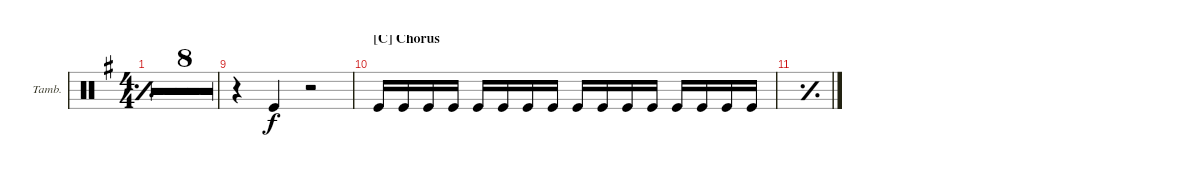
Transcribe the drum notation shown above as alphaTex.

\defaultSystemsLayout 4
\bracketExtendMode groupsimilarinstruments
\firstSystemTrackNameOrientation horizontal
\otherSystemsTrackNameOrientation horizontal
\track ("Tambourine" "Tamb.") {multiBarRest instrument percussion}
\staff {score}
\articulation defaults
\ts (4 4)
\tempo 98
\clef neutral
\simile simple
\ks g
|
|
|
|
|
|
|
|
r.4 "Kick (hit)".4 r.2 |
\section ("C" "Chorus")
"Kick (hit)".16 "Kick (hit)".16 "Kick (hit)".16 "Kick (hit)".16 "Kick (hit)".16 "Kick (hit)".16 "Kick (hit)".16 "Kick (hit)".16 "Kick (hit)".16 "Kick (hit)".16 "Kick (hit)".16 "Kick (hit)".16 "Kick (hit)".16 "Kick (hit)".16 "Kick (hit)".16 "Kick (hit)".16 |
\simile simple
